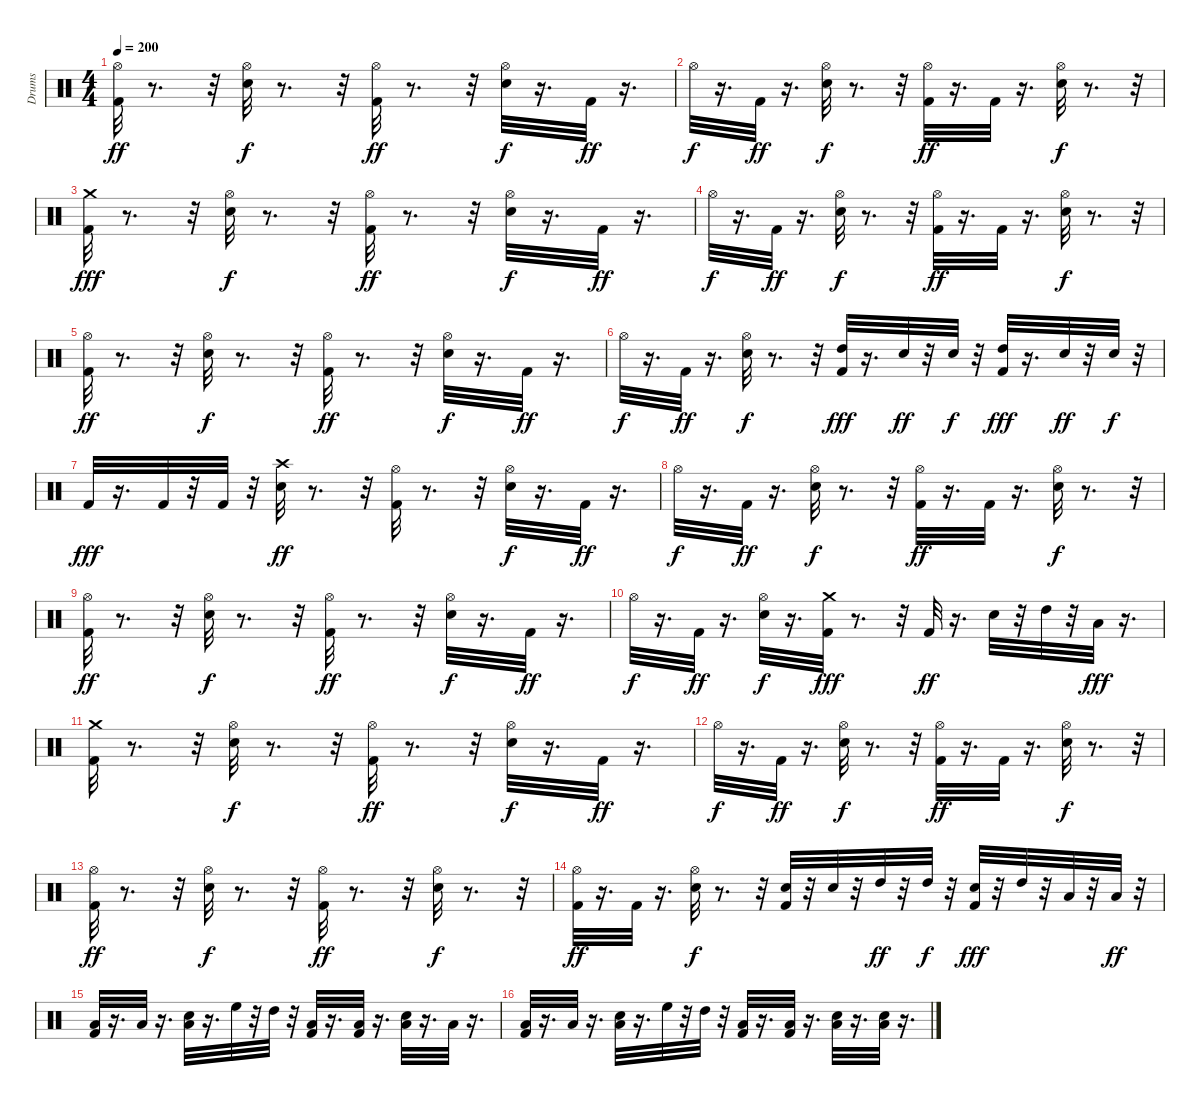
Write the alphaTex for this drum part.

\track ("Drums" "Drums") {instrument percussion}
\staff {score}
\articulation defaults
\ts (4 4)
\tempo 200
\clef neutral
\ks c
("Hi-Hat (open)" "Kick (hit) 2").32{dy ff} r.8{d} r.32 ("Hi-Hat (open)" "Snare (hit) 2").32{dy f} r.8{d} r.32 ("Hi-Hat (open)" "Kick (hit) 2").32{dy ff} r.8{d} r.32 ("Hi-Hat (open)" "Snare (hit) 2").32{dy f} r.16{d} "Kick (hit) 2".32{dy ff} r.16{d} |
"Hi-Hat (open)".32{dy f} r.16{d} "Kick (hit) 2".32{dy ff} r.16{d} ("Hi-Hat (open)" "Snare (hit) 2").32{dy f} r.8{d} r.32 ("Hi-Hat (open)" "Kick (hit) 2").32{dy ff} r.16{d} "Kick (hit) 2".32 r.16{d} ("Hi-Hat (open)" "Snare (hit) 2").32{dy f} r.8{d} r.32 |
("Crash medium (hit)" "Kick (hit) 2").32{dy fff} r.8{d} r.32 ("Hi-Hat (open)" "Snare (hit) 2").32{dy f} r.8{d} r.32 ("Hi-Hat (open)" "Kick (hit) 2").32{dy ff} r.8{d} r.32 ("Hi-Hat (open)" "Snare (hit) 2").32{dy f} r.16{d} "Kick (hit) 2".32{dy ff} r.16{d} |
"Hi-Hat (open)".32{dy f} r.16{d} "Kick (hit) 2".32{dy ff} r.16{d} ("Hi-Hat (open)" "Snare (hit) 2").32{dy f} r.8{d} r.32 ("Hi-Hat (open)" "Kick (hit) 2").32{dy ff} r.16{d} "Kick (hit) 2".32 r.16{d} ("Hi-Hat (open)" "Snare (hit) 2").32{dy f} r.8{d} r.32 |
("Hi-Hat (open)" "Kick (hit) 2").32{dy ff} r.8{d} r.32 ("Hi-Hat (open)" "Snare (hit) 2").32{dy f} r.8{d} r.32 ("Hi-Hat (open)" "Kick (hit) 2").32{dy ff} r.8{d} r.32 ("Hi-Hat (open)" "Snare (hit) 2").32{dy f} r.16{d} "Kick (hit) 2".32{dy ff} r.16{d} |
"Hi-Hat (open)".32{dy f} r.16{d} "Kick (hit) 2".32{dy ff} r.16{d} ("Hi-Hat (open)" "Snare (hit) 2").32{dy f} r.8{d} r.32 ("High Tom (hit)" "Kick (hit) 2").32{dy fff} r.16{d} "Snare (hit) 2".32{dy ff} r.32 "Snare (hit) 2".32{dy f} r.32 ("High Tom (hit)" "Kick (hit) 2").32{dy fff} r.16{d} "Snare (hit) 2".32{dy ff} r.32 "Snare (hit) 2".32{dy f} r.32 |
"Kick (hit) 2".32{dy fff} r.16{d} "Kick (hit) 2".32 r.32 "Kick (hit) 2".32 r.32 ("Crash high (hit)" "Snare (hit) 2").32{dy ff} r.8{d} r.32 ("Hi-Hat (open)" "Kick (hit) 2").32 r.8{d} r.32 ("Hi-Hat (open)" "Snare (hit) 2").32{dy f} r.16{d} "Kick (hit) 2".32{dy ff} r.16{d} |
"Hi-Hat (open)".32{dy f} r.16{d} "Kick (hit) 2".32{dy ff} r.16{d} ("Hi-Hat (open)" "Snare (hit) 2").32{dy f} r.8{d} r.32 ("Hi-Hat (open)" "Kick (hit) 2").32{dy ff} r.16{d} "Kick (hit) 2".32 r.16{d} ("Hi-Hat (open)" "Snare (hit) 2").32{dy f} r.8{d} r.32 |
("Hi-Hat (open)" "Kick (hit) 2").32{dy ff} r.8{d} r.32 ("Hi-Hat (open)" "Snare (hit) 2").32{dy f} r.8{d} r.32 ("Hi-Hat (open)" "Kick (hit) 2").32{dy ff} r.8{d} r.32 ("Hi-Hat (open)" "Snare (hit) 2").32{dy f} r.16{d} "Kick (hit) 2".32{dy ff} r.16{d} |
"Hi-Hat (open)".32{dy f} r.16{d} "Kick (hit) 2".32{dy ff} r.16{d} ("Hi-Hat (open)" "Snare (hit) 2").32{dy f} r.16{d} ("Crash medium (hit)" "Kick (hit) 2").32{dy fff} r.8{d} r.32 "Kick (hit) 2".32{dy ff} r.16{d} "Snare (hit) 2".32 r.32 "High Tom (hit)".32 r.32 "Low Floor Tom (hit)".32{dy fff} r.16{d} |
("Crash medium (hit)" "Kick (hit) 2").32 r.8{d} r.32 ("Hi-Hat (open)" "Snare (hit) 2").32{dy f} r.8{d} r.32 ("Hi-Hat (open)" "Kick (hit) 2").32{dy ff} r.8{d} r.32 ("Hi-Hat (open)" "Snare (hit) 2").32{dy f} r.16{d} "Kick (hit) 2".32{dy ff} r.16{d} |
"Hi-Hat (open)".32{dy f} r.16{d} "Kick (hit) 2".32{dy ff} r.16{d} ("Hi-Hat (open)" "Snare (hit) 2").32{dy f} r.8{d} r.32 ("Hi-Hat (open)" "Kick (hit) 2").32{dy ff} r.16{d} "Kick (hit) 2".32 r.16{d} ("Hi-Hat (open)" "Snare (hit) 2").32{dy f} r.8{d} r.32 |
("Hi-Hat (open)" "Kick (hit) 2").32{dy ff} r.8{d} r.32 ("Hi-Hat (open)" "Snare (hit) 2").32{dy f} r.8{d} r.32 ("Hi-Hat (open)" "Kick (hit) 2").32{dy ff} r.8{d} r.32 ("Hi-Hat (open)" "Snare (hit) 2").32{dy f} r.8{d} r.32 |
("Kick (hit) 2" "Hi-Hat (open)").32{dy ff} r.16{d} "Kick (hit) 2".32 r.16{d} ("Hi-Hat (open)" "Snare (hit) 2").32{dy f} r.8{d} r.32 ("Snare (hit) 2" "Kick (hit) 2").32 r.32 "Snare (hit) 2".32 r.32 "High Tom (hit)".32{dy ff} r.32 "High Tom (hit)".32{dy f} r.32 ("Snare (hit) 2" "Kick (hit) 2").32{dy fff} r.32 "High Tom (hit)".32 r.32 "Low Floor Tom (hit)".32 r.32 "Low Floor Tom (hit)".32{dy ff} r.32 |
("Low Floor Tom (hit)" "Kick (hit) 2").32 r.16{d} "Low Floor Tom (hit)".32 r.16{d} ("Low Floor Tom (hit)" "Snare (hit) 2").32 r.16{d} "High Floor Tom (hit)".32 r.32 "High Tom (hit)".32 r.32 ("Low Floor Tom (hit)" "Kick (hit) 2").32 r.16{d} ("Low Floor Tom (hit)" "Kick (hit) 2").32 r.16{d} ("Low Floor Tom (hit)" "Snare (hit) 2").32 r.16{d} "Low Floor Tom (hit)".32 r.16{d} |
("Low Floor Tom (hit)" "Kick (hit) 2").32 r.16{d} "Low Floor Tom (hit)".32 r.16{d} ("Low Floor Tom (hit)" "Snare (hit) 2").32 r.16{d} "High Floor Tom (hit)".32 r.32 "High Tom (hit)".32 r.32 ("Low Floor Tom (hit)" "Kick (hit) 2").32 r.16{d} ("Low Floor Tom (hit)" "Kick (hit) 2").32 r.16{d} ("Snare (hit) 2" "Low Floor Tom (hit)").32 r.16{d} ("Snare (hit) 2" "Low Floor Tom (hit)").32 r.16{d}
